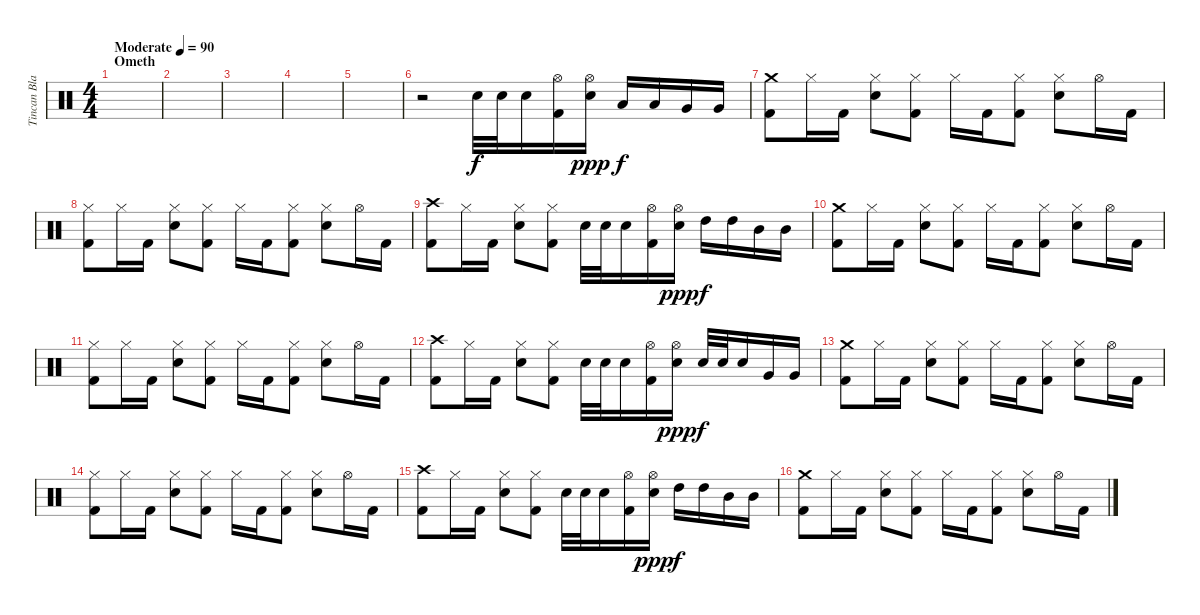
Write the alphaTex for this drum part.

\track ("Tincan Blaster" "Tincan Bla") {instrument percussion}
\staff {score}
\articulation defaults
\ts (4 4)
\section ("" "Ometh")
\tempo (90 "Moderate")
\clef neutral
\ks c
|
|
|
|
|
r.2 "Electric Snare (hit)".32 "Electric Snare (hit)".32 "Electric Snare (hit)".16 ("Hi-Hat (open)" "Kick (hit) 2").16 ("Hi-Hat (open)" "Electric Snare (hit)").16{dy ppp} "Low Tom (hit)".16{dy f} "Low Tom (hit)".16 "Very Low Tom (hit)".16 "Very Low Tom (hit)".16 |
("Crash medium (hit)" "Kick (hit) 2").8 "Hi-Hat (closed)".16 "Kick (hit) 2".16 ("Hi-Hat (closed)" "Electric Snare (hit)").8 ("Hi-Hat (closed)" "Kick (hit) 2").8 "Hi-Hat (closed)".16 "Kick (hit) 2".16 ("Hi-Hat (closed)" "Kick (hit) 2").8 ("Hi-Hat (closed)" "Electric Snare (hit)").8 "Hi-Hat (open)".16 "Kick (hit) 2".16 |
("Hi-Hat (closed)" "Kick (hit) 2").8 "Hi-Hat (closed)".16 "Kick (hit) 2".16 ("Hi-Hat (closed)" "Electric Snare (hit)").8 ("Hi-Hat (closed)" "Kick (hit) 2").8 "Hi-Hat (closed)".16 "Kick (hit) 2".16 ("Hi-Hat (closed)" "Kick (hit) 2").8 ("Hi-Hat (closed)" "Electric Snare (hit)").8 "Hi-Hat (open)".16 "Kick (hit) 2".16 |
("Crash high (hit)" "Kick (hit) 2").8 "Hi-Hat (closed)".16 "Kick (hit) 2".16 ("Hi-Hat (closed)" "Electric Snare (hit)").8 ("Hi-Hat (closed)" "Kick (hit) 2").8 "Electric Snare (hit)".32 "Electric Snare (hit)".32 "Electric Snare (hit)".16 ("Hi-Hat (open)" "Kick (hit) 2").16 ("Hi-Hat (open)" "Electric Snare (hit)").16{dy ppp} "High Tom (hit)".16{dy f} "High Tom (hit)".16 "Mid Tom (hit)".16 "Mid Tom (hit)".16 |
("Crash medium (hit)" "Kick (hit) 2").8 "Hi-Hat (closed)".16 "Kick (hit) 2".16 ("Hi-Hat (closed)" "Electric Snare (hit)").8 ("Hi-Hat (closed)" "Kick (hit) 2").8 "Hi-Hat (closed)".16 "Kick (hit) 2".16 ("Hi-Hat (closed)" "Kick (hit) 2").8 ("Hi-Hat (closed)" "Electric Snare (hit)").8 "Hi-Hat (open)".16 "Kick (hit) 2".16 |
("Hi-Hat (closed)" "Kick (hit) 2").8 "Hi-Hat (closed)".16 "Kick (hit) 2".16 ("Hi-Hat (closed)" "Electric Snare (hit)").8 ("Hi-Hat (closed)" "Kick (hit) 2").8 "Hi-Hat (closed)".16 "Kick (hit) 2".16 ("Hi-Hat (closed)" "Kick (hit) 2").8 ("Hi-Hat (closed)" "Electric Snare (hit)").8 "Hi-Hat (open)".16 "Kick (hit) 2".16 |
("Crash high (hit)" "Kick (hit) 2").8 "Hi-Hat (closed)".16 "Kick (hit) 2".16 ("Hi-Hat (closed)" "Electric Snare (hit)").8 ("Hi-Hat (closed)" "Kick (hit) 2").8 "Electric Snare (hit)".32 "Electric Snare (hit)".32 "Electric Snare (hit)".16 ("Hi-Hat (open)" "Kick (hit) 2").16 ("Hi-Hat (open)" "Electric Snare (hit)").16{dy ppp} "Electric Snare (hit)".32{dy f} "Electric Snare (hit)".32 "Electric Snare (hit)".16 "Very Low Tom (hit)".16 "Very Low Tom (hit)".16 |
("Crash medium (hit)" "Kick (hit) 2").8 "Hi-Hat (closed)".16 "Kick (hit) 2".16 ("Hi-Hat (closed)" "Electric Snare (hit)").8 ("Hi-Hat (closed)" "Kick (hit) 2").8 "Hi-Hat (closed)".16 "Kick (hit) 2".16 ("Hi-Hat (closed)" "Kick (hit) 2").8 ("Hi-Hat (closed)" "Electric Snare (hit)").8 "Hi-Hat (open)".16 "Kick (hit) 2".16 |
("Hi-Hat (closed)" "Kick (hit) 2").8 "Hi-Hat (closed)".16 "Kick (hit) 2".16 ("Hi-Hat (closed)" "Electric Snare (hit)").8 ("Hi-Hat (closed)" "Kick (hit) 2").8 "Hi-Hat (closed)".16 "Kick (hit) 2".16 ("Hi-Hat (closed)" "Kick (hit) 2").8 ("Hi-Hat (closed)" "Electric Snare (hit)").8 "Hi-Hat (open)".16 "Kick (hit) 2".16 |
("Crash high (hit)" "Kick (hit) 2").8 "Hi-Hat (closed)".16 "Kick (hit) 2".16 ("Hi-Hat (closed)" "Electric Snare (hit)").8 ("Hi-Hat (closed)" "Kick (hit) 2").8 "Electric Snare (hit)".32 "Electric Snare (hit)".32 "Electric Snare (hit)".16 ("Hi-Hat (open)" "Kick (hit) 2").16 ("Hi-Hat (open)" "Electric Snare (hit)").16{dy ppp} "High Tom (hit)".16{dy f} "High Tom (hit)".16 "Mid Tom (hit)".16 "Mid Tom (hit)".16 |
("Crash medium (hit)" "Kick (hit) 2").8 "Hi-Hat (closed)".16 "Kick (hit) 2".16 ("Hi-Hat (closed)" "Electric Snare (hit)").8 ("Hi-Hat (closed)" "Kick (hit) 2").8 "Hi-Hat (closed)".16 "Kick (hit) 2".16 ("Hi-Hat (closed)" "Kick (hit) 2").8 ("Hi-Hat (closed)" "Electric Snare (hit)").8 "Hi-Hat (open)".16 "Kick (hit) 2".16
